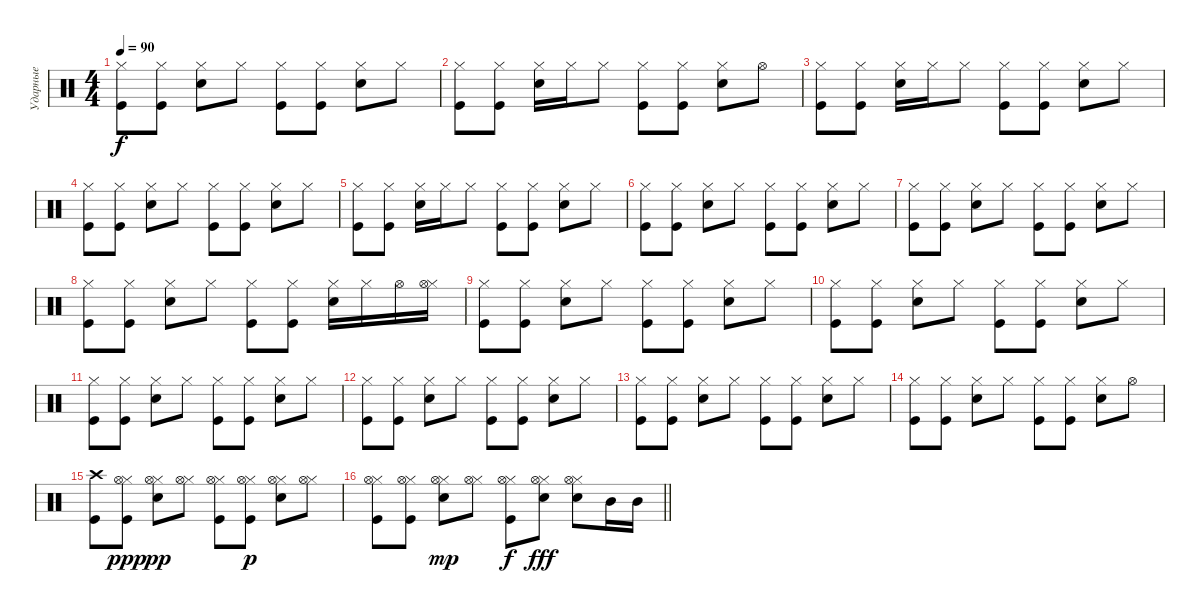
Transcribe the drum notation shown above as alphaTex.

\track ("Ударные" "Ударные") {instrument percussion}
\staff {score}
\articulation defaults
\ts (4 4)
\tempo 90
\clef neutral
\ks c
("Hi-Hat (closed)" "Kick (hit)").8{dy f} ("Hi-Hat (closed)" "Kick (hit)").8 ("Hi-Hat (closed)" "Snare (hit) 2").8 "Hi-Hat (closed)".8 ("Hi-Hat (closed)" "Kick (hit)").8 ("Hi-Hat (closed)" "Kick (hit)").8 ("Hi-Hat (closed)" "Snare (hit) 2").8 "Hi-Hat (closed)".8 |
("Hi-Hat (closed)" "Kick (hit)").8 ("Hi-Hat (closed)" "Kick (hit)").8 ("Hi-Hat (closed)" "Snare (hit) 2").16 "Hi-Hat (closed)".16 "Hi-Hat (closed)".8 ("Hi-Hat (closed)" "Kick (hit)").8 ("Hi-Hat (closed)" "Kick (hit)").8 ("Hi-Hat (closed)" "Snare (hit) 2").8 "Hi-Hat (open)".8 |
("Hi-Hat (closed)" "Kick (hit)").8 ("Hi-Hat (closed)" "Kick (hit)").8 ("Snare (hit) 2" "Hi-Hat (closed)").16 "Hi-Hat (closed)".16 "Hi-Hat (closed)".8 ("Hi-Hat (closed)" "Kick (hit)").8 ("Hi-Hat (closed)" "Kick (hit)").8 ("Hi-Hat (closed)" "Snare (hit) 2").8 "Hi-Hat (closed)".8 |
("Hi-Hat (closed)" "Kick (hit)").8 ("Hi-Hat (closed)" "Kick (hit)").8 ("Hi-Hat (closed)" "Snare (hit) 2").8 "Hi-Hat (closed)".8 ("Hi-Hat (closed)" "Kick (hit)").8 ("Hi-Hat (closed)" "Kick (hit)").8 ("Hi-Hat (closed)" "Snare (hit) 2").8 "Hi-Hat (closed)".8 |
("Hi-Hat (closed)" "Kick (hit)").8 ("Hi-Hat (closed)" "Kick (hit)").8 ("Hi-Hat (closed)" "Snare (hit) 2").16 "Hi-Hat (closed)".16 "Hi-Hat (closed)".8 ("Hi-Hat (closed)" "Kick (hit)").8 ("Hi-Hat (closed)" "Kick (hit)").8 ("Hi-Hat (closed)" "Snare (hit) 2").8 "Hi-Hat (closed)".8 |
("Hi-Hat (closed)" "Kick (hit)").8 ("Hi-Hat (closed)" "Kick (hit)").8 ("Hi-Hat (closed)" "Snare (hit) 2").8 "Hi-Hat (closed)".8 ("Hi-Hat (closed)" "Kick (hit)").8 ("Hi-Hat (closed)" "Kick (hit)").8 ("Hi-Hat (closed)" "Snare (hit) 2").8 "Hi-Hat (closed)".8 |
("Hi-Hat (closed)" "Kick (hit)").8 ("Hi-Hat (closed)" "Kick (hit)").8 ("Hi-Hat (closed)" "Snare (hit) 2").8 "Hi-Hat (closed)".8 ("Hi-Hat (closed)" "Kick (hit)").8 ("Hi-Hat (closed)" "Kick (hit)").8 ("Hi-Hat (closed)" "Snare (hit) 2").8 "Hi-Hat (closed)".8 |
("Hi-Hat (closed)" "Kick (hit)").8 ("Hi-Hat (closed)" "Kick (hit)").8 ("Hi-Hat (closed)" "Snare (hit) 2").8 "Hi-Hat (closed)".8 ("Hi-Hat (closed)" "Kick (hit)").8 ("Hi-Hat (closed)" "Kick (hit)").8 ("Hi-Hat (closed)" "Snare (hit) 2").16 "Hi-Hat (closed)".16 "Hi-Hat (open)".16 ("Hi-Hat (closed)" "Hi-Hat (open)").16 |
("Hi-Hat (closed)" "Kick (hit)").8 ("Hi-Hat (closed)" "Kick (hit)").8 ("Hi-Hat (closed)" "Snare (hit) 2").8 "Hi-Hat (closed)".8 ("Hi-Hat (closed)" "Kick (hit)").8 ("Hi-Hat (closed)" "Kick (hit)").8 ("Hi-Hat (closed)" "Snare (hit) 2").8 "Hi-Hat (closed)".8 |
("Hi-Hat (closed)" "Kick (hit)").8 ("Hi-Hat (closed)" "Kick (hit)").8 ("Hi-Hat (closed)" "Snare (hit) 2").8 "Hi-Hat (closed)".8 ("Hi-Hat (closed)" "Kick (hit)").8 ("Hi-Hat (closed)" "Kick (hit)").8 ("Hi-Hat (closed)" "Snare (hit) 2").8 "Hi-Hat (closed)".8 |
("Hi-Hat (closed)" "Kick (hit)").8 ("Hi-Hat (closed)" "Kick (hit)").8 ("Hi-Hat (closed)" "Snare (hit) 2").8 "Hi-Hat (closed)".8 ("Hi-Hat (closed)" "Kick (hit)").8 ("Hi-Hat (closed)" "Kick (hit)").8 ("Hi-Hat (closed)" "Snare (hit) 2").8 "Hi-Hat (closed)".8 |
("Hi-Hat (closed)" "Kick (hit)").8 ("Hi-Hat (closed)" "Kick (hit)").8 ("Hi-Hat (closed)" "Snare (hit) 2").8 "Hi-Hat (closed)".8 ("Hi-Hat (closed)" "Kick (hit)").8 ("Hi-Hat (closed)" "Kick (hit)").8 ("Hi-Hat (closed)" "Snare (hit) 2").8 "Hi-Hat (closed)".8 |
("Hi-Hat (closed)" "Kick (hit)").8 ("Hi-Hat (closed)" "Kick (hit)").8 ("Hi-Hat (closed)" "Snare (hit) 2").8 "Hi-Hat (closed)".8 ("Hi-Hat (closed)" "Kick (hit)").8 ("Hi-Hat (closed)" "Kick (hit)").8 ("Hi-Hat (closed)" "Snare (hit) 2").8 "Hi-Hat (closed)".8 |
("Hi-Hat (closed)" "Kick (hit)").8 ("Hi-Hat (closed)" "Kick (hit)").8 ("Hi-Hat (closed)" "Snare (hit) 2").8 "Hi-Hat (closed)".8 ("Hi-Hat (closed)" "Kick (hit)").8 ("Hi-Hat (closed)" "Kick (hit)").8 ("Hi-Hat (closed)" "Snare (hit) 2").8 "Hi-Hat (open)".8 |
("Crash high (hit)" "Kick (hit)").8 ("Hi-Hat (closed)" "Kick (hit)" "Hi-Hat (open)").8{dy ppp} ("Hi-Hat (closed)" "Snare (hit) 2" "Hi-Hat (open)").8{dy pp} ("Hi-Hat (closed)" "Hi-Hat (open)").8 ("Hi-Hat (closed)" "Kick (hit)" "Hi-Hat (open)").8 ("Hi-Hat (closed)" "Kick (hit)" "Hi-Hat (open)").8{dy p} ("Hi-Hat (closed)" "Snare (hit) 2" "Hi-Hat (open)").8 ("Hi-Hat (closed)" "Hi-Hat (open)").8 |
\barLineRight lightlight
("Hi-Hat (closed)" "Hi-Hat (open)" "Kick (hit)").8 ("Hi-Hat (closed)" "Hi-Hat (open)" "Kick (hit)").8 ("Hi-Hat (closed)" "Hi-Hat (open)" "Snare (hit) 2").8{dy mp} ("Hi-Hat (closed)" "Hi-Hat (open)").8 ("Hi-Hat (closed)" "Hi-Hat (open)" "Kick (hit)").8{dy f} ("Hi-Hat (closed)" "Hi-Hat (open)" "Snare (hit) 2").8{dy fff} ("Hi-Hat (closed)" "Hi-Hat (open)" "Snare (hit) 2").8 "Mid Tom (hit)".16 "Mid Tom (hit)".16
